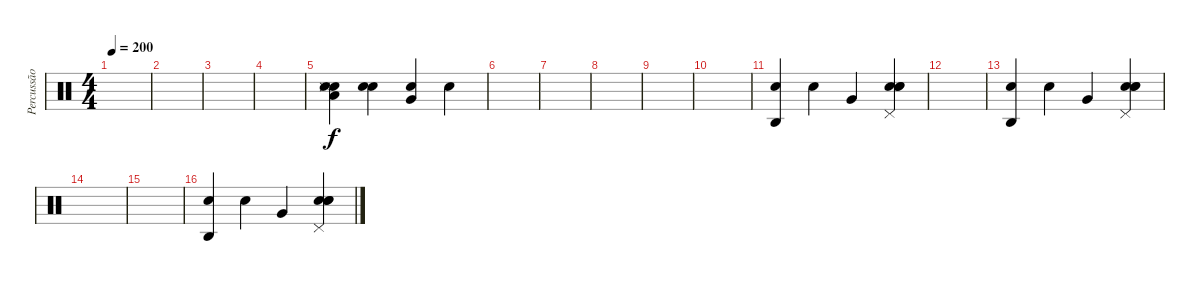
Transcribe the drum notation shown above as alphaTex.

\track ("Percussão" "Percussão") {instrument percussion}
\staff {score}
\articulation defaults
\ts (4 4)
\tempo 200
\clef neutral
\ks c
|
|
|
|
("Metronome (bell)" "Snare (side stick) 3" "Electric Snare (hit)" "Low Tom (hit)").4 ("Snare (hit)" "Snare (hit)").4 ("Metronome (bell)" "Very Low Tom (hit)").4 "Snare (hit)".4 |
|
|
|
|
|
("Agogo high (hit)" "Snare (hit)").4 "Metronome (bell)".4 "Very Low Tom (hit)".4 ("Pedal Hi-Hat (hit)" "Snare (hit)" "Snare (hit)" "Metronome (bell)").4 |
|
("Agogo high (hit)" "Snare (hit)").4 "Metronome (bell)".4 "Very Low Tom (hit)".4 ("Pedal Hi-Hat (hit)" "Snare (hit)" "Snare (hit)" "Metronome (bell)").4 |
|
|
("Agogo high (hit)" "Snare (hit)").4 "Metronome (bell)".4 "Very Low Tom (hit)".4 ("Pedal Hi-Hat (hit)" "Snare (hit)" "Snare (hit)" "Metronome (bell)").4
